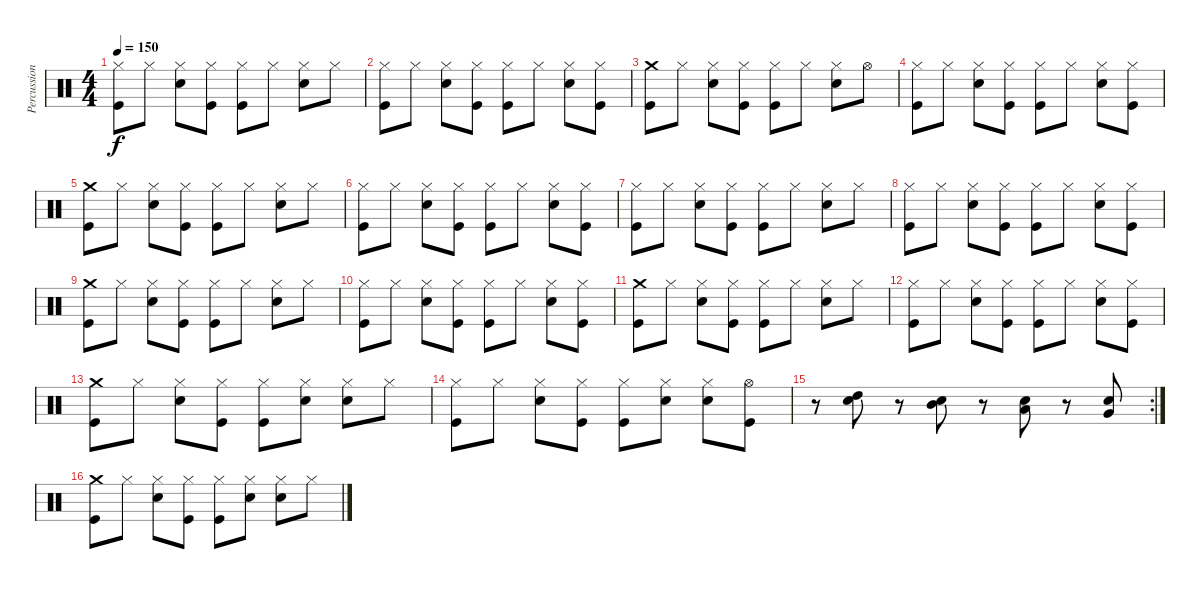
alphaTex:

\track ("Percussions" "Percussion") {instrument percussion}
\staff {score}
\articulation defaults
\ts (4 4)
\tempo 150
\clef neutral
\ks c
("Hi-Hat (closed)" "Kick (hit)").8{dy f} "Hi-Hat (closed)".8 ("Hi-Hat (closed)" "Snare (hit) 2").8 ("Hi-Hat (closed)" "Kick (hit)").8 ("Hi-Hat (closed)" "Kick (hit)").8 "Hi-Hat (closed)".8 ("Hi-Hat (closed)" "Snare (hit) 2").8 "Hi-Hat (closed)".8 |
("Hi-Hat (closed)" "Kick (hit)").8 "Hi-Hat (closed)".8 ("Hi-Hat (closed)" "Snare (hit) 2").8 ("Hi-Hat (closed)" "Kick (hit)").8 ("Hi-Hat (closed)" "Kick (hit)").8 "Hi-Hat (closed)".8 ("Hi-Hat (closed)" "Snare (hit) 2").8 ("Hi-Hat (closed)" "Kick (hit)").8 |
("Crash medium (hit)" "Kick (hit)").8 "Hi-Hat (closed)".8 ("Hi-Hat (closed)" "Snare (hit) 2").8 ("Hi-Hat (closed)" "Kick (hit)").8 ("Hi-Hat (closed)" "Kick (hit)").8 "Hi-Hat (closed)".8 ("Hi-Hat (closed)" "Snare (hit) 2").8 "Hi-Hat (open)".8 |
("Hi-Hat (closed)" "Kick (hit)").8 "Hi-Hat (closed)".8 ("Hi-Hat (closed)" "Snare (hit) 2").8 ("Hi-Hat (closed)" "Kick (hit)").8 ("Hi-Hat (closed)" "Kick (hit)").8 "Hi-Hat (closed)".8 ("Hi-Hat (closed)" "Snare (hit) 2").8 ("Hi-Hat (closed)" "Kick (hit)").8 |
("Crash medium (hit)" "Kick (hit)").8 "Hi-Hat (closed)".8 ("Hi-Hat (closed)" "Snare (hit) 2").8 ("Hi-Hat (closed)" "Kick (hit)").8 ("Hi-Hat (closed)" "Kick (hit)").8 "Hi-Hat (closed)".8 ("Hi-Hat (closed)" "Snare (hit) 2").8 "Hi-Hat (closed)".8 |
("Hi-Hat (closed)" "Kick (hit)").8 "Hi-Hat (closed)".8 ("Hi-Hat (closed)" "Snare (hit) 2").8 ("Hi-Hat (closed)" "Kick (hit)").8 ("Hi-Hat (closed)" "Kick (hit)").8 "Hi-Hat (closed)".8 ("Hi-Hat (closed)" "Snare (hit) 2").8 ("Hi-Hat (closed)" "Kick (hit)").8 |
("Hi-Hat (closed)" "Kick (hit)").8 "Hi-Hat (closed)".8 ("Hi-Hat (closed)" "Snare (hit) 2").8 ("Hi-Hat (closed)" "Kick (hit)").8 ("Hi-Hat (closed)" "Kick (hit)").8 "Hi-Hat (closed)".8 ("Hi-Hat (closed)" "Snare (hit) 2").8 "Hi-Hat (closed)".8 |
("Hi-Hat (closed)" "Kick (hit)").8 "Hi-Hat (closed)".8 ("Hi-Hat (closed)" "Snare (hit) 2").8 ("Hi-Hat (closed)" "Kick (hit)").8 ("Hi-Hat (closed)" "Kick (hit)").8 "Hi-Hat (closed)".8 ("Hi-Hat (closed)" "Snare (hit) 2").8 ("Hi-Hat (closed)" "Kick (hit)").8 |
("Crash medium (hit)" "Kick (hit)").8 "Hi-Hat (closed)".8 ("Hi-Hat (closed)" "Snare (hit) 2").8 ("Hi-Hat (closed)" "Kick (hit)").8 ("Hi-Hat (closed)" "Kick (hit)").8 "Hi-Hat (closed)".8 ("Hi-Hat (closed)" "Snare (hit) 2").8 "Hi-Hat (closed)".8 |
("Hi-Hat (closed)" "Kick (hit)").8 "Hi-Hat (closed)".8 ("Hi-Hat (closed)" "Snare (hit) 2").8 ("Hi-Hat (closed)" "Kick (hit)").8 ("Hi-Hat (closed)" "Kick (hit)").8 "Hi-Hat (closed)".8 ("Hi-Hat (closed)" "Snare (hit) 2").8 ("Hi-Hat (closed)" "Kick (hit)").8 |
("Crash medium (hit)" "Kick (hit)").8 "Hi-Hat (closed)".8 ("Hi-Hat (closed)" "Snare (hit) 2").8 ("Hi-Hat (closed)" "Kick (hit)").8 ("Hi-Hat (closed)" "Kick (hit)").8 "Hi-Hat (closed)".8 ("Hi-Hat (closed)" "Snare (hit) 2").8 "Hi-Hat (closed)".8 |
("Hi-Hat (closed)" "Kick (hit)").8 "Hi-Hat (closed)".8 ("Hi-Hat (closed)" "Snare (hit) 2").8 ("Hi-Hat (closed)" "Kick (hit)").8 ("Hi-Hat (closed)" "Kick (hit)").8 "Hi-Hat (closed)".8 ("Hi-Hat (closed)" "Snare (hit) 2").8 ("Hi-Hat (closed)" "Kick (hit)").8 |
("Crash medium (hit)" "Kick (hit)").8 "Hi-Hat (closed)".8 ("Hi-Hat (closed)" "Snare (hit) 2").8 ("Hi-Hat (closed)" "Kick (hit)").8 ("Hi-Hat (closed)" "Kick (hit)").8 ("Hi-Hat (closed)" "Snare (hit) 2").8 ("Hi-Hat (closed)" "Snare (hit) 2").8 "Hi-Hat (closed)".8 |
("Hi-Hat (closed)" "Kick (hit)").8 "Hi-Hat (closed)".8 ("Hi-Hat (closed)" "Snare (hit) 2").8 ("Hi-Hat (closed)" "Kick (hit)").8 ("Hi-Hat (closed)" "Kick (hit)").8 ("Hi-Hat (closed)" "Snare (hit) 2").8 ("Hi-Hat (closed)" "Snare (hit) 2").8 ("Hi-Hat (open)" "Kick (hit)").8 |
\rc 2
r.8 ("High Tom (hit)" "Snare (hit) 2").8 r.8 ("Mid Tom (hit)" "Snare (hit) 2").8 r.8 ("Low Tom (hit)" "Snare (hit) 2").8 r.8 ("Very Low Tom (hit)" "Snare (hit) 2").8 |
("Crash medium (hit)" "Kick (hit)").8 "Hi-Hat (closed)".8 ("Hi-Hat (closed)" "Snare (hit) 2").8 ("Hi-Hat (closed)" "Kick (hit)").8 ("Hi-Hat (closed)" "Kick (hit)").8 ("Hi-Hat (closed)" "Snare (hit) 2").8 ("Hi-Hat (closed)" "Snare (hit) 2").8 "Hi-Hat (closed)".8
